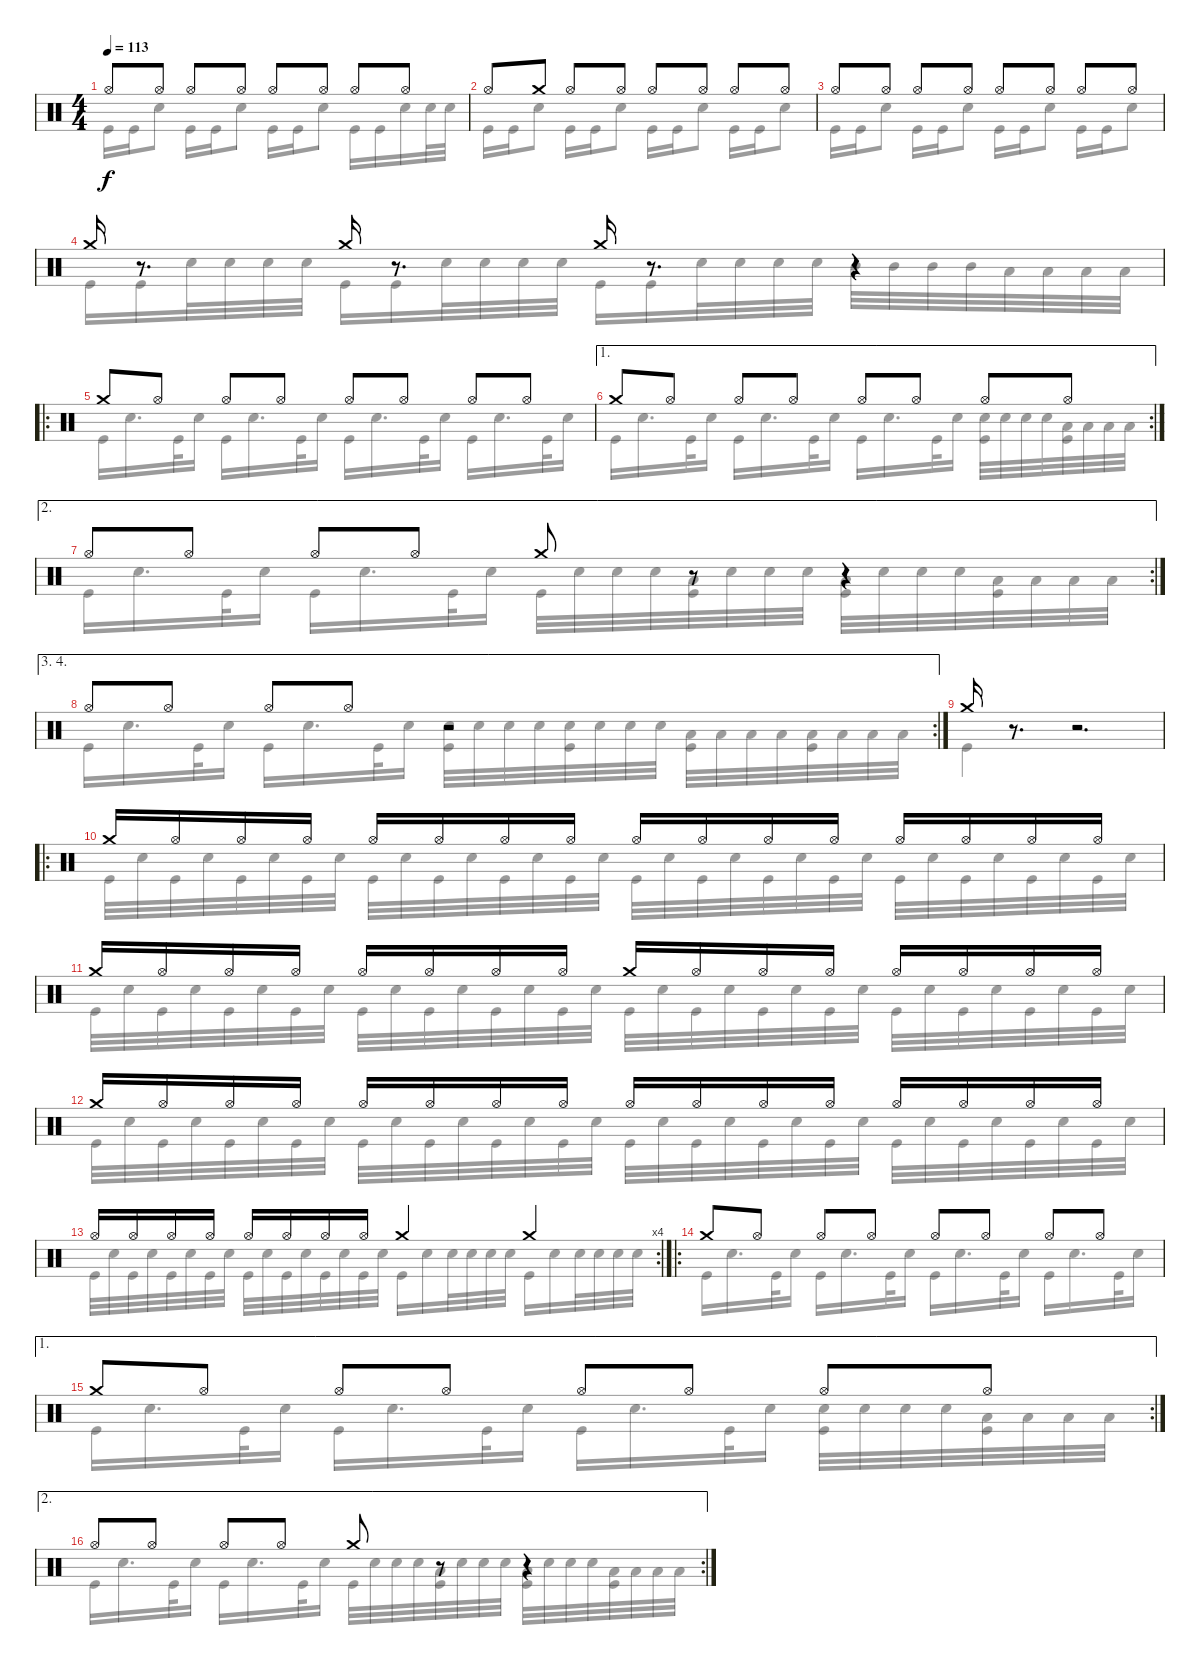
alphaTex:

\track "" {instrument percussion}
\staff {score}
\articulation defaults
\voice
\ts (4 4)
\tempo 113
\clef neutral
\ks c "Hi-Hat (open)".8{dy f} "Hi-Hat (open)".8 "Hi-Hat (open)".8 "Hi-Hat (open)".8 "Hi-Hat (open)".8 "Hi-Hat (open)".8 "Hi-Hat (open)".8 "Hi-Hat (open)".8
|
"Hi-Hat (open)".8 "Crash medium (hit)".8 "Hi-Hat (open)".8 "Hi-Hat (open)".8 "Hi-Hat (open)".8 "Hi-Hat (open)".8 "Hi-Hat (open)".8 "Hi-Hat (open)".8 |
"Hi-Hat (open)".8 "Hi-Hat (open)".8 "Hi-Hat (open)".8 "Hi-Hat (open)".8 "Hi-Hat (open)".8 "Hi-Hat (open)".8 "Hi-Hat (open)".8 "Hi-Hat (open)".8 |
"Crash medium (hit)".16 r.8{d} "Crash medium (hit)".16 r.8{d} "Crash medium (hit)".16 r.8{d} r.4 |
\ro "Crash medium (hit)".8 "Hi-Hat (open)".8 "Hi-Hat (open)".8 "Hi-Hat (open)".8 "Hi-Hat (open)".8 "Hi-Hat (open)".8 "Hi-Hat (open)".8 "Hi-Hat (open)".8
|
\ae 1
\rc 2 "Crash medium (hit)".8 "Hi-Hat (open)".8 "Hi-Hat (open)".8 "Hi-Hat (open)".8 "Hi-Hat (open)".8 "Hi-Hat (open)".8 "Hi-Hat (open)".8 "Hi-Hat (open)".8
|
\ae 2
\rc 2 "Hi-Hat (open)".8 "Hi-Hat (open)".8 "Hi-Hat (open)".8 "Hi-Hat (open)".8 "Crash medium (hit)".8
r.8 r.4 |
\ae (3 4)
\rc 2 "Hi-Hat (open)".8 "Hi-Hat (open)".8 "Hi-Hat (open)".8 "Hi-Hat (open)".8
r.2 |
"Crash medium (hit)".16 r.8{d} r.2{d} |
\ro "Crash medium (hit)".16 "Hi-Hat (open)".16 "Hi-Hat (open)".16 "Hi-Hat (open)".16 "Hi-Hat (open)".16 "Hi-Hat (open)".16 "Hi-Hat (open)".16 "Hi-Hat (open)".16 "Hi-Hat (open)".16 "Hi-Hat (open)".16 "Hi-Hat (open)".16 "Hi-Hat (open)".16 "Hi-Hat (open)".16 "Hi-Hat (open)".16 "Hi-Hat (open)".16 "Hi-Hat (open)".16
|
"Crash medium (hit)".16 "Hi-Hat (open)".16 "Hi-Hat (open)".16 "Hi-Hat (open)".16 "Hi-Hat (open)".16 "Hi-Hat (open)".16 "Hi-Hat (open)".16 "Hi-Hat (open)".16 "Crash medium (hit)".16 "Hi-Hat (open)".16 "Hi-Hat (open)".16 "Hi-Hat (open)".16 "Hi-Hat (open)".16 "Hi-Hat (open)".16 "Hi-Hat (open)".16 "Hi-Hat (open)".16 |
"Crash medium (hit)".16 "Hi-Hat (open)".16 "Hi-Hat (open)".16 "Hi-Hat (open)".16 "Hi-Hat (open)".16 "Hi-Hat (open)".16 "Hi-Hat (open)".16 "Hi-Hat (open)".16 "Hi-Hat (open)".16 "Hi-Hat (open)".16 "Hi-Hat (open)".16 "Hi-Hat (open)".16 "Hi-Hat (open)".16 "Hi-Hat (open)".16 "Hi-Hat (open)".16 "Hi-Hat (open)".16 |
\rc 4 "Hi-Hat (open)".16 "Hi-Hat (open)".16 "Hi-Hat (open)".16 "Hi-Hat (open)".16 "Hi-Hat (open)".16 "Hi-Hat (open)".16 "Hi-Hat (open)".16 "Hi-Hat (open)".16 "Crash medium (hit)".4 "Crash medium (hit)".4
|
\ro "Crash medium (hit)".8 "Hi-Hat (open)".8 "Hi-Hat (open)".8 "Hi-Hat (open)".8 "Hi-Hat (open)".8 "Hi-Hat (open)".8 "Hi-Hat (open)".8 "Hi-Hat (open)".8
|
\ae 1
\rc 2 "Crash medium (hit)".8 "Hi-Hat (open)".8 "Hi-Hat (open)".8 "Hi-Hat (open)".8 "Hi-Hat (open)".8 "Hi-Hat (open)".8 "Hi-Hat (open)".8 "Hi-Hat (open)".8
|
\ae 2
\rc 2 "Hi-Hat (open)".8 "Hi-Hat (open)".8 "Hi-Hat (open)".8 "Hi-Hat (open)".8 "Crash medium (hit)".8
r.8 r.4
\voice
\clef neutral
\ottava regular
\simile none
\ks c "Kick (hit)".16{dy f} "Kick (hit)".16 "Snare (hit) 2".8 "Kick (hit)".16 "Kick (hit)".16 "Snare (hit) 2".8 "Kick (hit)".16 "Kick (hit)".16 "Snare (hit) 2".8 "Kick (hit)".16 "Kick (hit)".16 "Snare (hit) 2".16 "Snare (hit) 2".32 "Snare (hit) 2".32
|
"Kick (hit)".16 "Kick (hit)".16 "Snare (hit) 2".8 "Kick (hit)".16 "Kick (hit)".16 "Snare (hit) 2".8 "Kick (hit)".16 "Kick (hit)".16 "Snare (hit) 2".8 "Kick (hit)".16 "Kick (hit)".16 "Snare (hit) 2".8 |
"Kick (hit)".16 "Kick (hit)".16 "Snare (hit) 2".8 "Kick (hit)".16 "Kick (hit)".16 "Snare (hit) 2".8 "Kick (hit)".16 "Kick (hit)".16 "Snare (hit) 2".8 "Kick (hit)".16 "Kick (hit)".16 "Snare (hit) 2".8 |
"Kick (hit)".16 "Kick (hit)".16 "Snare (hit) 2".32 "Snare (hit) 2".32 "Snare (hit) 2".32 "Snare (hit) 2".32 "Kick (hit)".16 "Kick (hit)".16 "Snare (hit) 2".32 "Snare (hit) 2".32 "Snare (hit) 2".32 "Snare (hit) 2".32 "Kick (hit)".16 "Kick (hit)".16 "Snare (hit) 2".32 "Snare (hit) 2".32 "Snare (hit) 2".32 "Snare (hit) 2".32 "Mid Tom (hit)".32 "Mid Tom (hit)".32 "Mid Tom (hit)".32 "Mid Tom (hit)".32 "Low Tom (hit)".32 "Low Tom (hit)".32 "Low Tom (hit)".32 "Low Tom (hit)".32 |
"Kick (hit)".16 "Snare (hit) 2".16{d} "Kick (hit)".32 "Snare (hit) 2".16 "Kick (hit)".16 "Snare (hit) 2".16{d} "Kick (hit)".32 "Snare (hit) 2".16 "Kick (hit)".16 "Snare (hit) 2".16{d} "Kick (hit)".32 "Snare (hit) 2".16 "Kick (hit)".16 "Snare (hit) 2".16{d} "Kick (hit)".32 "Snare (hit) 2".16 |
"Kick (hit)".16 "Snare (hit) 2".16{d} "Kick (hit)".32 "Snare (hit) 2".16 "Kick (hit)".16 "Snare (hit) 2".16{d} "Kick (hit)".32 "Snare (hit) 2".16 "Kick (hit)".16 "Snare (hit) 2".16{d} "Kick (hit)".32 "Snare (hit) 2".16 ("Snare (hit) 2" "Kick (hit)").32 "Snare (hit) 2".32 "Snare (hit) 2".32 "Snare (hit) 2".32 ("Low Tom (hit)" "Kick (hit)").32 "Low Tom (hit)".32 "Low Tom (hit)".32 "Low Tom (hit)".32 |
"Kick (hit)".16 "Snare (hit) 2".16{d} "Kick (hit)".32 "Snare (hit) 2".16 "Kick (hit)".16 "Snare (hit) 2".16{d} "Kick (hit)".32 "Snare (hit) 2".16 "Kick (hit)".32 "Snare (hit) 2".32 "Snare (hit) 2".32 "Snare (hit) 2".32 ("Low Tom (hit)" "Kick (hit)").32 "Snare (hit) 2".32 "Snare (hit) 2".32 "Snare (hit) 2".32 ("Low Tom (hit)" "Kick (hit)").32 "Snare (hit) 2".32 "Snare (hit) 2".32 "Snare (hit) 2".32 ("Low Tom (hit)" "Kick (hit)").32 "Low Tom (hit)".32 "Low Tom (hit)".32 "Low Tom (hit)".32 |
"Kick (hit)".16 "Snare (hit) 2".16{d} "Kick (hit)".32 "Snare (hit) 2".16 "Kick (hit)".16 "Snare (hit) 2".16{d} "Kick (hit)".32 "Snare (hit) 2".16 ("Snare (hit) 2" "Kick (hit)").32 "Snare (hit) 2".32 "Snare (hit) 2".32 "Snare (hit) 2".32 ("Snare (hit) 2" "Kick (hit)").32 "Snare (hit) 2".32 "Snare (hit) 2".32 "Snare (hit) 2".32 ("Low Tom (hit)" "Kick (hit)").32 "Low Tom (hit)".32 "Low Tom (hit)".32 "Low Tom (hit)".32 ("Low Tom (hit)" "Kick (hit)").32 "Low Tom (hit)".32 "Low Tom (hit)".32 "Low Tom (hit)".32 |
"Kick (hit)".4 r.2{d} |
"Kick (hit)".32 "Snare (hit) 2".32 "Kick (hit)".32 "Snare (hit) 2".32 "Kick (hit)".32 "Snare (hit) 2".32 "Kick (hit)".32 "Snare (hit) 2".32 "Kick (hit)".32 "Snare (hit) 2".32 "Kick (hit)".32 "Snare (hit) 2".32 "Kick (hit)".32 "Snare (hit) 2".32 "Kick (hit)".32 "Snare (hit) 2".32 "Kick (hit)".32 "Snare (hit) 2".32 "Kick (hit)".32 "Snare (hit) 2".32 "Kick (hit)".32 "Snare (hit) 2".32 "Kick (hit)".32 "Snare (hit) 2".32 "Kick (hit)".32 "Snare (hit) 2".32 "Kick (hit)".32 "Snare (hit) 2".32 "Kick (hit)".32 "Snare (hit) 2".32 "Kick (hit)".32 "Snare (hit) 2".32 |
"Kick (hit)".32 "Snare (hit) 2".32 "Kick (hit)".32 "Snare (hit) 2".32 "Kick (hit)".32 "Snare (hit) 2".32 "Kick (hit)".32 "Snare (hit) 2".32 "Kick (hit)".32 "Snare (hit) 2".32 "Kick (hit)".32 "Snare (hit) 2".32 "Kick (hit)".32 "Snare (hit) 2".32 "Kick (hit)".32 "Snare (hit) 2".32 "Kick (hit)".32 "Snare (hit) 2".32 "Kick (hit)".32 "Snare (hit) 2".32 "Kick (hit)".32 "Snare (hit) 2".32 "Kick (hit)".32 "Snare (hit) 2".32 "Kick (hit)".32 "Snare (hit) 2".32 "Kick (hit)".32 "Snare (hit) 2".32 "Kick (hit)".32 "Snare (hit) 2".32 "Kick (hit)".32 "Snare (hit) 2".32 |
"Kick (hit)".32 "Snare (hit) 2".32 "Kick (hit)".32 "Snare (hit) 2".32 "Kick (hit)".32 "Snare (hit) 2".32 "Kick (hit)".32 "Snare (hit) 2".32 "Kick (hit)".32 "Snare (hit) 2".32 "Kick (hit)".32 "Snare (hit) 2".32 "Kick (hit)".32 "Snare (hit) 2".32 "Kick (hit)".32 "Snare (hit) 2".32 "Kick (hit)".32 "Snare (hit) 2".32 "Kick (hit)".32 "Snare (hit) 2".32 "Kick (hit)".32 "Snare (hit) 2".32 "Kick (hit)".32 "Snare (hit) 2".32 "Kick (hit)".32 "Snare (hit) 2".32 "Kick (hit)".32 "Snare (hit) 2".32 "Kick (hit)".32 "Snare (hit) 2".32 "Kick (hit)".32 "Snare (hit) 2".32 |
"Kick (hit)".32 "Snare (hit) 2".32 "Kick (hit)".32 "Snare (hit) 2".32 "Kick (hit)".32 "Snare (hit) 2".32 "Kick (hit)".32 "Snare (hit) 2".32 "Kick (hit)".32 "Snare (hit) 2".32 "Kick (hit)".32 "Snare (hit) 2".32 "Kick (hit)".32 "Snare (hit) 2".32 "Kick (hit)".32 "Snare (hit) 2".32 "Kick (hit)".16 "Snare (hit) 2".16 "Snare (hit) 2".32 "Snare (hit) 2".32 "Snare (hit) 2".32 "Snare (hit) 2".32 "Kick (hit)".16 "Snare (hit) 2".16 "Snare (hit) 2".32 "Snare (hit) 2".32 "Snare (hit) 2".32 "Snare (hit) 2".32 |
"Kick (hit)".16 "Snare (hit) 2".16{d} "Kick (hit)".32 "Snare (hit) 2".16 "Kick (hit)".16 "Snare (hit) 2".16{d} "Kick (hit)".32 "Snare (hit) 2".16 "Kick (hit)".16 "Snare (hit) 2".16{d} "Kick (hit)".32 "Snare (hit) 2".16 "Kick (hit)".16 "Snare (hit) 2".16{d} "Kick (hit)".32 "Snare (hit) 2".16 |
"Kick (hit)".16 "Snare (hit) 2".16{d} "Kick (hit)".32 "Snare (hit) 2".16 "Kick (hit)".16 "Snare (hit) 2".16{d} "Kick (hit)".32 "Snare (hit) 2".16 "Kick (hit)".16 "Snare (hit) 2".16{d} "Kick (hit)".32 "Snare (hit) 2".16 ("Snare (hit) 2" "Kick (hit)").32 "Snare (hit) 2".32 "Snare (hit) 2".32 "Snare (hit) 2".32 ("Low Tom (hit)" "Kick (hit)").32 "Low Tom (hit)".32 "Low Tom (hit)".32 "Low Tom (hit)".32 |
"Kick (hit)".16 "Snare (hit) 2".16{d} "Kick (hit)".32 "Snare (hit) 2".16 "Kick (hit)".16 "Snare (hit) 2".16{d} "Kick (hit)".32 "Snare (hit) 2".16 "Kick (hit)".32 "Snare (hit) 2".32 "Snare (hit) 2".32 "Snare (hit) 2".32 ("Low Tom (hit)" "Kick (hit)").32 "Snare (hit) 2".32 "Snare (hit) 2".32 "Snare (hit) 2".32 ("Low Tom (hit)" "Kick (hit)").32 "Snare (hit) 2".32 "Snare (hit) 2".32 "Snare (hit) 2".32 ("Low Tom (hit)" "Kick (hit)").32 "Low Tom (hit)".32 "Low Tom (hit)".32 "Low Tom (hit)".32
